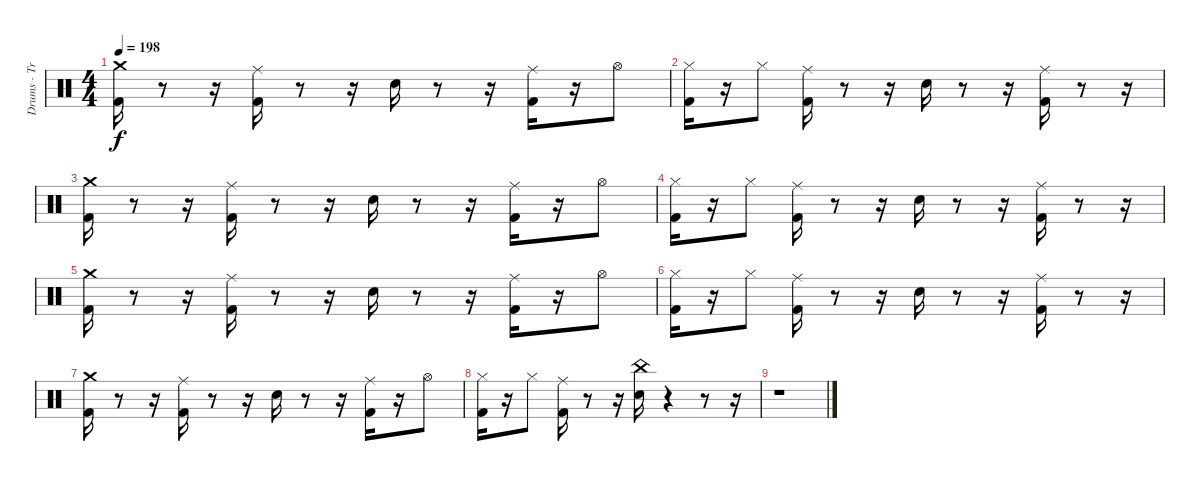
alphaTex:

\track ("Drums - Travis" "Drums - Tr") {instrument percussion}
\staff {score}
\articulation defaults
\ts (4 4)
\tempo 198
\clef neutral
\ks c
("Crash medium (hit)" "Kick (hit) 2").16{dy f} r.8 r.16 ("Ride (middle)" "Kick (hit) 2").16 r.8 r.16 "Electric Snare (hit)".16 r.8 r.16 ("Ride (middle)" "Kick (hit) 2").16 r.16 "Hi-Hat (open)".8 |
("Kick (hit) 2" "Hi-Hat (closed)").16 r.16 "Hi-Hat (closed)".8 ("Ride (middle)" "Kick (hit) 2").16 r.8 r.16 "Electric Snare (hit)".16 r.8 r.16 ("Ride (middle)" "Kick (hit) 2").16 r.8 r.16 |
("Crash medium (hit)" "Kick (hit) 2").16 r.8 r.16 ("Ride (middle)" "Kick (hit) 2").16 r.8 r.16 "Electric Snare (hit)".16 r.8 r.16 ("Ride (middle)" "Kick (hit) 2").16 r.16 "Hi-Hat (open)".8 |
("Kick (hit) 2" "Hi-Hat (closed)").16 r.16 "Hi-Hat (closed)".8 ("Ride (middle)" "Kick (hit) 2").16 r.8 r.16 "Electric Snare (hit)".16 r.8 r.16 ("Ride (middle)" "Kick (hit) 2").16 r.8 r.16 |
("Crash medium (hit)" "Kick (hit) 2").16 r.8 r.16 ("Ride (middle)" "Kick (hit) 2").16 r.8 r.16 "Electric Snare (hit)".16 r.8 r.16 ("Ride (middle)" "Kick (hit) 2").16 r.16 "Hi-Hat (open)".8 |
("Kick (hit) 2" "Hi-Hat (closed)").16 r.16 "Hi-Hat (closed)".8 ("Ride (middle)" "Kick (hit) 2").16 r.8 r.16 "Electric Snare (hit)".16 r.8 r.16 ("Ride (middle)" "Kick (hit) 2").16 r.8 r.16 |
("Crash medium (hit)" "Kick (hit) 2").16 r.8 r.16 ("Ride (middle)" "Kick (hit) 2").16 r.8 r.16 "Electric Snare (hit)".16 r.8 r.16 ("Ride (middle)" "Kick (hit) 2").16 r.16 "Hi-Hat (open)".8 |
("Kick (hit) 2" "Hi-Hat (closed)").16 r.16 "Hi-Hat (closed)".8 ("Ride (middle)" "Kick (hit) 2").16 r.8 r.16 ("China (hit)" "Electric Snare (hit)").16 r.4 r.8 r.16 |
r.1
